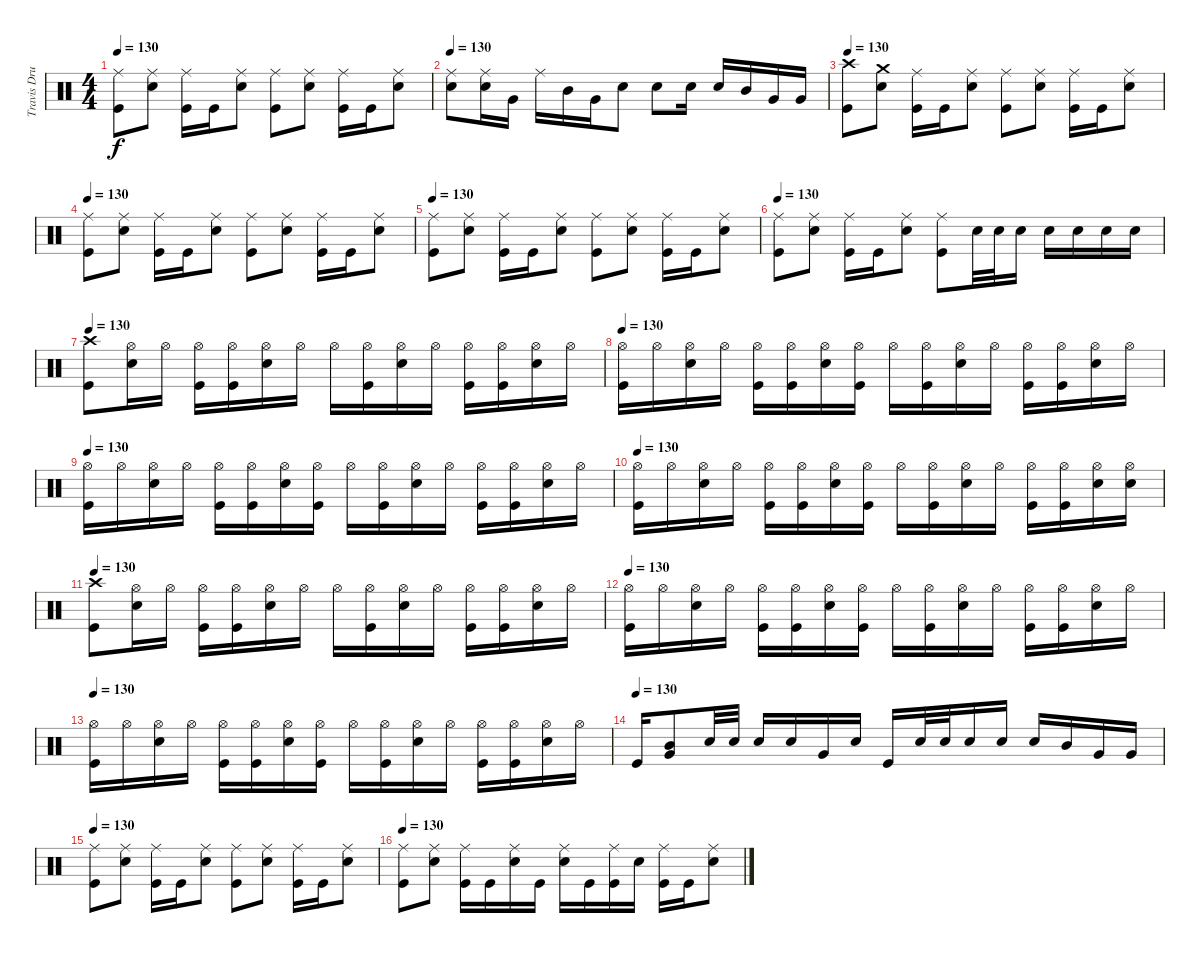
\track ("Travis Drums" "Travis Dru") {instrument percussion}
\staff {score}
\articulation defaults
\ts (4 4)
\tempo 130
\clef neutral
\ks c
("Ride (middle)" "Kick (hit)").8{dy f} ("Ride (middle)" "Snare (hit) 2").8 ("Ride (middle)" "Kick (hit)").16 "Kick (hit)".16 ("Ride (middle)" "Snare (hit) 2").8 ("Ride (middle)" "Kick (hit)").8 ("Ride (middle)" "Snare (hit) 2").8 ("Ride (middle)" "Kick (hit)").16 "Kick (hit)".16 ("Ride (middle)" "Snare (hit) 2").8 |
\tempo 130
("Ride (middle)" "Snare (hit) 2").8 ("Ride (middle)" "Snare (hit) 2").16 "Very Low Tom (hit)".16 "Ride (middle)".16 "Mid Tom (hit)".16 "Very Low Tom (hit)".16 "Snare (hit) 2".8 "Snare (hit) 2".8 "Snare (hit) 2".16 "Snare (hit) 2".16 "Mid Tom (hit)".16 "Very Low Tom (hit)".16 "Very Low Tom (hit)".16 |
\tempo 130
("Crash high (hit)" "Kick (hit)").8 ("Crash medium (hit)" "Snare (hit) 2").8 ("Ride (middle)" "Kick (hit)").16 "Kick (hit)".16 ("Ride (middle)" "Snare (hit) 2").8 ("Ride (middle)" "Kick (hit)").8 ("Ride (middle)" "Snare (hit) 2").8 ("Ride (middle)" "Kick (hit)").16 "Kick (hit)".16 ("Ride (middle)" "Snare (hit) 2").8 |
\tempo 130
("Ride (middle)" "Kick (hit)").8 ("Ride (middle)" "Snare (hit) 2").8 ("Ride (middle)" "Kick (hit)").16 "Kick (hit)".16 ("Ride (middle)" "Snare (hit) 2").8 ("Ride (middle)" "Kick (hit)").8 ("Ride (middle)" "Snare (hit) 2").8 ("Ride (middle)" "Kick (hit)").16 "Kick (hit)".16 ("Ride (middle)" "Snare (hit) 2").8 |
\tempo 130
("Ride (middle)" "Kick (hit)").8 ("Ride (middle)" "Snare (hit) 2").8 ("Ride (middle)" "Kick (hit)").16 "Kick (hit)".16 ("Ride (middle)" "Snare (hit) 2").8 ("Ride (middle)" "Kick (hit)").8 ("Ride (middle)" "Snare (hit) 2").8 ("Ride (middle)" "Kick (hit)").16 "Kick (hit)".16 ("Ride (middle)" "Snare (hit) 2").8 |
\tempo 130
("Ride (middle)" "Kick (hit)").8 ("Ride (middle)" "Snare (hit) 2").8 ("Ride (middle)" "Kick (hit)").16 "Kick (hit)".16 ("Ride (middle)" "Snare (hit) 2").8 ("Ride (middle)" "Kick (hit)").8 "Snare (hit) 2".32 "Snare (hit) 2".32 "Snare (hit) 2".16 "Snare (hit) 2".16 "Snare (hit) 2".16 "Snare (hit) 2".16 "Snare (hit) 2".16 |
\tempo 130
("Crash high (hit)" "Kick (hit)").8 ("Hi-Hat (open)" "Snare (hit) 2").16 "Hi-Hat (open)".16 ("Hi-Hat (open)" "Kick (hit)").16 ("Hi-Hat (open)" "Kick (hit)").16 ("Hi-Hat (open)" "Snare (hit) 2").16 "Hi-Hat (open)".16 "Hi-Hat (open)".16 ("Hi-Hat (open)" "Kick (hit)").16 ("Hi-Hat (open)" "Snare (hit) 2").16 "Hi-Hat (open)".16 ("Hi-Hat (open)" "Kick (hit)").16 ("Hi-Hat (open)" "Kick (hit)").16 ("Hi-Hat (open)" "Snare (hit) 2").16 "Hi-Hat (open)".16 |
\tempo 130
("Hi-Hat (open)" "Kick (hit)").16 "Hi-Hat (open)".16 ("Hi-Hat (open)" "Snare (hit) 2").16 "Hi-Hat (open)".16 ("Hi-Hat (open)" "Kick (hit)").16 ("Hi-Hat (open)" "Kick (hit)").16 ("Hi-Hat (open)" "Snare (hit) 2").16 ("Hi-Hat (open)" "Kick (hit)").16 "Hi-Hat (open)".16 ("Hi-Hat (open)" "Kick (hit)").16 ("Hi-Hat (open)" "Snare (hit) 2").16 "Hi-Hat (open)".16 ("Hi-Hat (open)" "Kick (hit)").16 ("Hi-Hat (open)" "Kick (hit)").16 ("Hi-Hat (open)" "Snare (hit) 2").16 "Hi-Hat (open)".16 |
\tempo 130
("Hi-Hat (open)" "Kick (hit)").16 "Hi-Hat (open)".16 ("Hi-Hat (open)" "Snare (hit) 2").16 "Hi-Hat (open)".16 ("Hi-Hat (open)" "Kick (hit)").16 ("Hi-Hat (open)" "Kick (hit)").16 ("Hi-Hat (open)" "Snare (hit) 2").16 ("Hi-Hat (open)" "Kick (hit)").16 "Hi-Hat (open)".16 ("Hi-Hat (open)" "Kick (hit)").16 ("Hi-Hat (open)" "Snare (hit) 2").16 "Hi-Hat (open)".16 ("Hi-Hat (open)" "Kick (hit)").16 ("Hi-Hat (open)" "Kick (hit)").16 ("Hi-Hat (open)" "Snare (hit) 2").16 "Hi-Hat (open)".16 |
\tempo 130
("Hi-Hat (open)" "Kick (hit)").16 "Hi-Hat (open)".16 ("Hi-Hat (open)" "Snare (hit) 2").16 "Hi-Hat (open)".16 ("Hi-Hat (open)" "Kick (hit)").16 ("Hi-Hat (open)" "Kick (hit)").16 ("Hi-Hat (open)" "Snare (hit) 2").16 ("Hi-Hat (open)" "Kick (hit)").16 "Hi-Hat (open)".16 ("Hi-Hat (open)" "Kick (hit)").16 ("Hi-Hat (open)" "Snare (hit) 2").16 "Hi-Hat (open)".16 ("Hi-Hat (open)" "Kick (hit)").16 ("Hi-Hat (open)" "Kick (hit)").16 ("Hi-Hat (open)" "Snare (hit) 2").16 ("Hi-Hat (open)" "Snare (hit) 2").16 |
\tempo 130
("Crash high (hit)" "Kick (hit)").8 ("Hi-Hat (open)" "Snare (hit) 2").16 "Hi-Hat (open)".16 ("Hi-Hat (open)" "Kick (hit)").16 ("Hi-Hat (open)" "Kick (hit)").16 ("Hi-Hat (open)" "Snare (hit) 2").16 "Hi-Hat (open)".16 "Hi-Hat (open)".16 ("Hi-Hat (open)" "Kick (hit)").16 ("Hi-Hat (open)" "Snare (hit) 2").16 "Hi-Hat (open)".16 ("Hi-Hat (open)" "Kick (hit)").16 ("Hi-Hat (open)" "Kick (hit)").16 ("Hi-Hat (open)" "Snare (hit) 2").16 "Hi-Hat (open)".16 |
\tempo 130
("Hi-Hat (open)" "Kick (hit)").16 "Hi-Hat (open)".16 ("Hi-Hat (open)" "Snare (hit) 2").16 "Hi-Hat (open)".16 ("Hi-Hat (open)" "Kick (hit)").16 ("Hi-Hat (open)" "Kick (hit)").16 ("Hi-Hat (open)" "Snare (hit) 2").16 ("Hi-Hat (open)" "Kick (hit)").16 "Hi-Hat (open)".16 ("Hi-Hat (open)" "Kick (hit)").16 ("Hi-Hat (open)" "Snare (hit) 2").16 "Hi-Hat (open)".16 ("Hi-Hat (open)" "Kick (hit)").16 ("Hi-Hat (open)" "Kick (hit)").16 ("Hi-Hat (open)" "Snare (hit) 2").16 "Hi-Hat (open)".16 |
\tempo 130
("Hi-Hat (open)" "Kick (hit)").16 "Hi-Hat (open)".16 ("Hi-Hat (open)" "Snare (hit) 2").16 "Hi-Hat (open)".16 ("Hi-Hat (open)" "Kick (hit)").16 ("Hi-Hat (open)" "Kick (hit)").16 ("Hi-Hat (open)" "Snare (hit) 2").16 ("Hi-Hat (open)" "Kick (hit)").16 "Hi-Hat (open)".16 ("Hi-Hat (open)" "Kick (hit)").16 ("Hi-Hat (open)" "Snare (hit) 2").16 "Hi-Hat (open)".16 ("Hi-Hat (open)" "Kick (hit)").16 ("Hi-Hat (open)" "Kick (hit)").16 ("Hi-Hat (open)" "Snare (hit) 2").16 "Hi-Hat (open)".16 |
\tempo (130)
"Kick (hit)".16 ("Mid Tom (hit)" "Very Low Tom (hit)").8 "Snare (hit) 2".32 "Snare (hit) 2".32 "Snare (hit) 2".16 "Snare (hit) 2".16 "Very Low Tom (hit)".16 "Snare (hit) 2".16 "Kick (hit)".16 "Snare (hit) 2".32 "Snare (hit) 2".32 "Snare (hit) 2".16 "Snare (hit) 2".16 "Snare (hit) 2".16 "Mid Tom (hit)".16 "Very Low Tom (hit)".16 "Very Low Tom (hit)".16 |
\tempo 130
("Ride (middle)" "Kick (hit)").8 ("Ride (middle)" "Snare (hit) 2").8 ("Ride (middle)" "Kick (hit)").16 "Kick (hit)".16 ("Ride (middle)" "Snare (hit) 2").8 ("Ride (middle)" "Kick (hit)").8 ("Ride (middle)" "Snare (hit) 2").8 ("Ride (middle)" "Kick (hit)").16 "Kick (hit)".16 ("Ride (middle)" "Snare (hit) 2").8 |
\tempo 130
("Ride (middle)" "Kick (hit)").8 ("Ride (middle)" "Snare (hit) 2").8 ("Ride (middle)" "Kick (hit)").16 "Kick (hit)".16 ("Ride (middle)" "Snare (hit) 2").16 "Kick (hit)".16 ("Ride (middle)" "Snare (hit) 2").16 "Kick (hit)".16 ("Ride (middle)" "Kick (hit)").16 "Snare (hit) 2".16 ("Ride (middle)" "Kick (hit)").16 "Kick (hit)".16 ("Ride (middle)" "Snare (hit) 2").8
